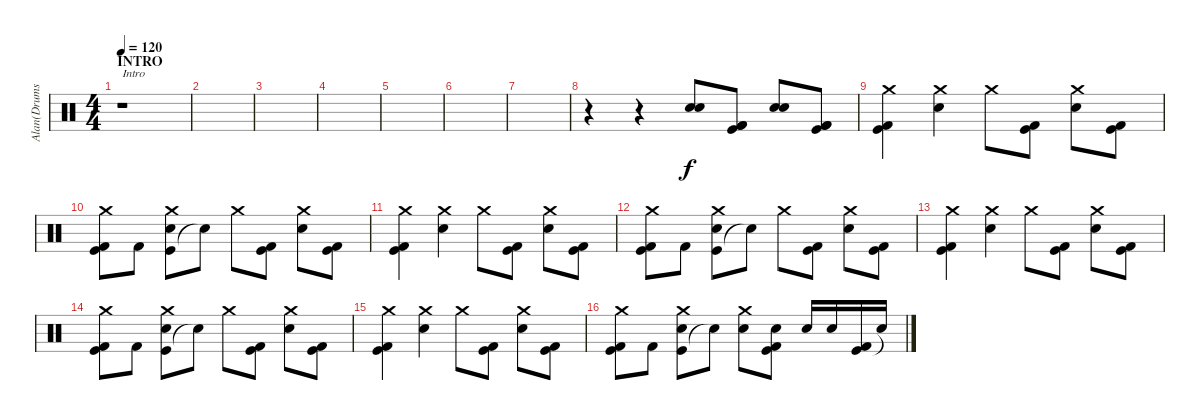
\track ("Alan(Drums)" "Alan(Drums") {instrument percussion}
\staff {score}
\articulation defaults
\ts (4 4)
\section ("" "INTRO")
\tempo 120
\clef neutral
\ks c
r.1{txt "Intro" dy f} |
|
|
|
|
|
|
r.4 r.4 ("Electric Snare (hit)" "Electric Snare (hit)").8 ("Kick (hit) 2" "Kick (hit) 2" "Kick (hit)").8 ("Electric Snare (hit)" "Electric Snare (hit)").8 ("Kick (hit) 2" "Kick (hit) 2" "Kick (hit)").8 |
("Kick (hit) 2" "Kick (hit)" "Crash medium (hit)").4 ("Electric Snare (hit)" "Crash medium (hit)").4 "Crash medium (hit)".8 ("Kick (hit)" "Kick (hit) 2").8 ("Electric Snare (hit)" "Crash medium (hit)").8 ("Kick (hit)" "Kick (hit) 2").8 |
("Kick (hit)" "Kick (hit) 2" "Crash medium (hit)").8 "Kick (hit) 2".8 ("Kick (hit)" "Electric Snare (hit)" "Crash medium (hit)").8 "Snare (hit)"{t}.8 "Crash medium (hit)".8 ("Kick (hit)" "Kick (hit) 2").8 ("Electric Snare (hit)" "Crash medium (hit)").8 ("Kick (hit)" "Kick (hit) 2").8 |
("Kick (hit) 2" "Kick (hit)" "Crash medium (hit)").4 ("Electric Snare (hit)" "Crash medium (hit)").4 "Crash medium (hit)".8 ("Kick (hit)" "Kick (hit) 2").8 ("Electric Snare (hit)" "Crash medium (hit)").8 ("Kick (hit)" "Kick (hit) 2").8 |
("Kick (hit)" "Kick (hit) 2" "Crash medium (hit)").8 "Kick (hit) 2".8 ("Kick (hit)" "Electric Snare (hit)" "Crash medium (hit)").8 "Snare (hit)"{t}.8 "Crash medium (hit)".8 ("Kick (hit)" "Kick (hit) 2").8 ("Electric Snare (hit)" "Crash medium (hit)").8 ("Kick (hit)" "Kick (hit) 2").8 |
("Kick (hit) 2" "Kick (hit)" "Crash medium (hit)").4 ("Electric Snare (hit)" "Crash medium (hit)").4 "Crash medium (hit)".8 ("Kick (hit)" "Kick (hit) 2").8 ("Electric Snare (hit)" "Crash medium (hit)").8 ("Kick (hit)" "Kick (hit) 2").8 |
("Kick (hit)" "Kick (hit) 2" "Crash medium (hit)").8 "Kick (hit) 2".8 ("Kick (hit)" "Electric Snare (hit)" "Crash medium (hit)").8 "Snare (hit)"{t}.8 "Crash medium (hit)".8 ("Kick (hit)" "Kick (hit) 2").8 ("Electric Snare (hit)" "Crash medium (hit)").8 ("Kick (hit)" "Kick (hit) 2").8 |
("Kick (hit) 2" "Kick (hit)" "Crash medium (hit)").4 ("Electric Snare (hit)" "Crash medium (hit)").4 "Crash medium (hit)".8 ("Kick (hit)" "Kick (hit) 2").8 ("Electric Snare (hit)" "Crash medium (hit)").8 ("Kick (hit)" "Kick (hit) 2").8 |
("Kick (hit)" "Kick (hit) 2" "Crash medium (hit)").8 "Kick (hit) 2".8 ("Kick (hit)" "Electric Snare (hit)" "Crash medium (hit)").8 "Snare (hit)"{t}.8 ("Electric Snare (hit)" "Crash medium (hit)").8 ("Kick (hit)" "Kick (hit) 2" "Electric Snare (hit)").8 "Electric Snare (hit)".16 "Electric Snare (hit)".16 ("Kick (hit)" "Kick (hit) 2").16 "Snare (hit)"{t}.16
